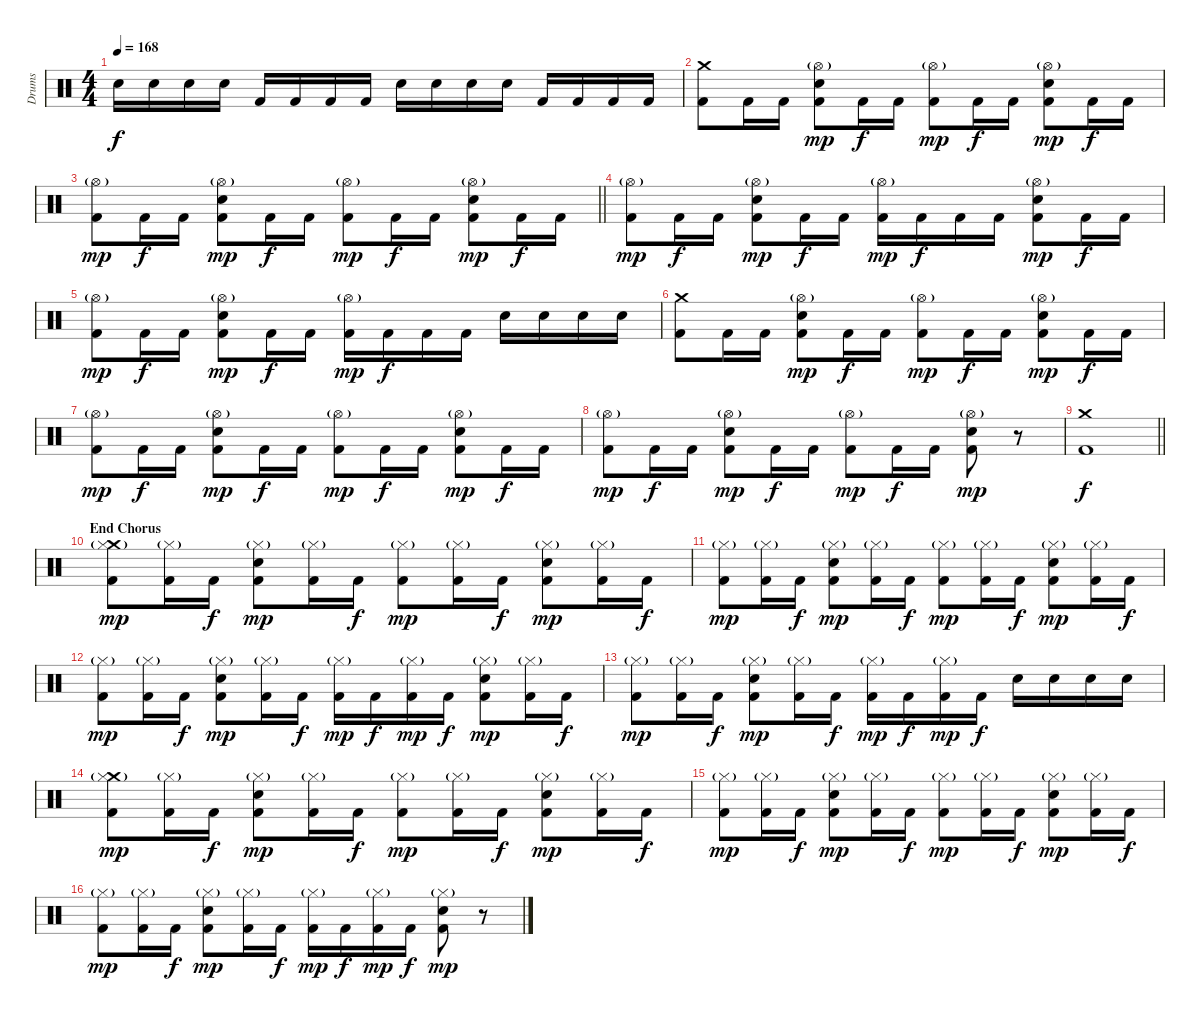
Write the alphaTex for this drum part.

\track ("Drums" "Drums") {instrument percussion}
\staff {score}
\articulation defaults
\ts (4 4)
\tempo 168
\clef neutral
\ks c "Snare (hit) 2".16{dy f} "Snare (hit) 2".16 "Snare (hit) 2".16 "Snare (hit) 2".16 "Kick (hit) 2".16 "Kick (hit) 2".16 "Kick (hit) 2".16 "Kick (hit) 2".16 "Snare (hit) 2".16 "Snare (hit) 2".16 "Snare (hit) 2".16 "Snare (hit) 2".16 "Kick (hit) 2".16 "Kick (hit) 2".16 "Kick (hit) 2".16 "Kick (hit) 2".16
|
("Crash medium (hit)" "Kick (hit) 2").8 "Kick (hit) 2".16 "Kick (hit) 2".16 ("Snare (hit) 2" "Hi-Hat (open)"{g} "Kick (hit) 2").8{dy mp} "Kick (hit) 2".16{dy f} "Kick (hit) 2".16 ("Hi-Hat (open)"{g} "Kick (hit) 2").8{dy mp} "Kick (hit) 2".16{dy f} "Kick (hit) 2".16 ("Snare (hit) 2" "Hi-Hat (open)"{g} "Kick (hit) 2").8{dy mp} "Kick (hit) 2".16{dy f} "Kick (hit) 2".16 |
\barLineRight lightlight
("Hi-Hat (open)"{g} "Kick (hit) 2").8{dy mp} "Kick (hit) 2".16{dy f} "Kick (hit) 2".16 ("Snare (hit) 2" "Hi-Hat (open)"{g} "Kick (hit) 2").8{dy mp} "Kick (hit) 2".16{dy f} "Kick (hit) 2".16 ("Hi-Hat (open)"{g} "Kick (hit) 2").8{dy mp} "Kick (hit) 2".16{dy f} "Kick (hit) 2".16 ("Snare (hit) 2" "Hi-Hat (open)"{g} "Kick (hit) 2").8{dy mp} "Kick (hit) 2".16{dy f} "Kick (hit) 2".16 |
("Hi-Hat (open)"{g} "Kick (hit) 2").8{dy mp} "Kick (hit) 2".16{dy f} "Kick (hit) 2".16 ("Snare (hit) 2" "Hi-Hat (open)"{g} "Kick (hit) 2").8{dy mp} "Kick (hit) 2".16{dy f} "Kick (hit) 2".16 ("Hi-Hat (open)"{g} "Kick (hit) 2").16{dy mp} "Kick (hit) 2".16{dy f} "Kick (hit) 2".16 "Kick (hit) 2".16 ("Snare (hit) 2" "Hi-Hat (open)"{g} "Kick (hit) 2").8{dy mp} "Kick (hit) 2".16{dy f} "Kick (hit) 2".16 |
("Hi-Hat (open)"{g} "Kick (hit) 2").8{dy mp} "Kick (hit) 2".16{dy f} "Kick (hit) 2".16 ("Snare (hit) 2" "Hi-Hat (open)"{g} "Kick (hit) 2").8{dy mp} "Kick (hit) 2".16{dy f} "Kick (hit) 2".16 ("Hi-Hat (open)"{g} "Kick (hit) 2").16{dy mp} "Kick (hit) 2".16{dy f} "Kick (hit) 2".16 "Kick (hit) 2".16 "Snare (hit) 2".16 "Snare (hit) 2".16 "Snare (hit) 2".16 "Snare (hit) 2".16 |
("Crash medium (hit)" "Kick (hit) 2").8 "Kick (hit) 2".16 "Kick (hit) 2".16 ("Snare (hit) 2" "Hi-Hat (open)"{g} "Kick (hit) 2").8{dy mp} "Kick (hit) 2".16{dy f} "Kick (hit) 2".16 ("Hi-Hat (open)"{g} "Kick (hit) 2").8{dy mp} "Kick (hit) 2".16{dy f} "Kick (hit) 2".16 ("Snare (hit) 2" "Hi-Hat (open)"{g} "Kick (hit) 2").8{dy mp} "Kick (hit) 2".16{dy f} "Kick (hit) 2".16 |
("Hi-Hat (open)"{g} "Kick (hit) 2").8{dy mp} "Kick (hit) 2".16{dy f} "Kick (hit) 2".16 ("Snare (hit) 2" "Hi-Hat (open)"{g} "Kick (hit) 2").8{dy mp} "Kick (hit) 2".16{dy f} "Kick (hit) 2".16 ("Hi-Hat (open)"{g} "Kick (hit) 2").8{dy mp} "Kick (hit) 2".16{dy f} "Kick (hit) 2".16 ("Snare (hit) 2" "Hi-Hat (open)"{g} "Kick (hit) 2").8{dy mp} "Kick (hit) 2".16{dy f} "Kick (hit) 2".16 |
("Hi-Hat (open)"{g} "Kick (hit) 2").8{dy mp} "Kick (hit) 2".16{dy f} "Kick (hit) 2".16 ("Snare (hit) 2" "Hi-Hat (open)"{g} "Kick (hit) 2").8{dy mp} "Kick (hit) 2".16{dy f} "Kick (hit) 2".16 ("Hi-Hat (open)"{g} "Kick (hit) 2").8{dy mp} "Kick (hit) 2".16{dy f} "Kick (hit) 2".16 ("Snare (hit) 2" "Hi-Hat (open)"{g} "Kick (hit) 2").8{dy mp} r.8 |
\barLineRight lightlight
("Crash medium (hit)" "Kick (hit) 2").1{dy f} |
\section ("" "End Chorus")
("Crash medium (hit)" "Hi-Hat (closed)"{g} "Kick (hit) 2").8{dy mp} ("Hi-Hat (closed)"{g} "Kick (hit) 2").16 "Kick (hit) 2".16{dy f} ("Snare (hit) 2" "Hi-Hat (closed)"{g} "Kick (hit) 2").8{dy mp} ("Hi-Hat (closed)"{g} "Kick (hit) 2").16 "Kick (hit) 2".16{dy f} ("Hi-Hat (closed)"{g} "Kick (hit) 2").8{dy mp} ("Hi-Hat (closed)"{g} "Kick (hit) 2").16 "Kick (hit) 2".16{dy f} ("Snare (hit) 2" "Hi-Hat (closed)"{g} "Kick (hit) 2").8{dy mp} ("Hi-Hat (closed)"{g} "Kick (hit) 2").16 "Kick (hit) 2".16{dy f} |
("Hi-Hat (closed)"{g} "Kick (hit) 2").8{dy mp} ("Hi-Hat (closed)"{g} "Kick (hit) 2").16 "Kick (hit) 2".16{dy f} ("Snare (hit) 2" "Hi-Hat (closed)"{g} "Kick (hit) 2").8{dy mp} ("Hi-Hat (closed)"{g} "Kick (hit) 2").16 "Kick (hit) 2".16{dy f} ("Hi-Hat (closed)"{g} "Kick (hit) 2").8{dy mp} ("Hi-Hat (closed)"{g} "Kick (hit) 2").16 "Kick (hit) 2".16{dy f} ("Snare (hit) 2" "Hi-Hat (closed)"{g} "Kick (hit) 2").8{dy mp} ("Hi-Hat (closed)"{g} "Kick (hit) 2").16 "Kick (hit) 2".16{dy f} |
("Hi-Hat (closed)"{g} "Kick (hit) 2").8{dy mp} ("Hi-Hat (closed)"{g} "Kick (hit) 2").16 "Kick (hit) 2".16{dy f} ("Snare (hit) 2" "Hi-Hat (closed)"{g} "Kick (hit) 2").8{dy mp} ("Hi-Hat (closed)"{g} "Kick (hit) 2").16 "Kick (hit) 2".16{dy f} ("Hi-Hat (closed)"{g} "Kick (hit) 2").16{dy mp} "Kick (hit) 2".16{dy f} ("Hi-Hat (closed)"{g} "Kick (hit) 2").16{dy mp} "Kick (hit) 2".16{dy f} ("Snare (hit) 2" "Hi-Hat (closed)"{g} "Kick (hit) 2").8{dy mp} ("Hi-Hat (closed)"{g} "Kick (hit) 2").16 "Kick (hit) 2".16{dy f} |
("Hi-Hat (closed)"{g} "Kick (hit) 2").8{dy mp} ("Hi-Hat (closed)"{g} "Kick (hit) 2").16 "Kick (hit) 2".16{dy f} ("Snare (hit) 2" "Hi-Hat (closed)"{g} "Kick (hit) 2").8{dy mp} ("Hi-Hat (closed)"{g} "Kick (hit) 2").16 "Kick (hit) 2".16{dy f} ("Hi-Hat (closed)"{g} "Kick (hit) 2").16{dy mp} "Kick (hit) 2".16{dy f} ("Hi-Hat (closed)"{g} "Kick (hit) 2").16{dy mp} "Kick (hit) 2".16{dy f} "Snare (hit) 2".16 "Snare (hit) 2".16 "Snare (hit) 2".16 "Snare (hit) 2".16 |
("Crash medium (hit)" "Hi-Hat (closed)"{g} "Kick (hit) 2").8{dy mp} ("Hi-Hat (closed)"{g} "Kick (hit) 2").16 "Kick (hit) 2".16{dy f} ("Snare (hit) 2" "Hi-Hat (closed)"{g} "Kick (hit) 2").8{dy mp} ("Hi-Hat (closed)"{g} "Kick (hit) 2").16 "Kick (hit) 2".16{dy f} ("Hi-Hat (closed)"{g} "Kick (hit) 2").8{dy mp} ("Hi-Hat (closed)"{g} "Kick (hit) 2").16 "Kick (hit) 2".16{dy f} ("Snare (hit) 2" "Hi-Hat (closed)"{g} "Kick (hit) 2").8{dy mp} ("Hi-Hat (closed)"{g} "Kick (hit) 2").16 "Kick (hit) 2".16{dy f} |
("Hi-Hat (closed)"{g} "Kick (hit) 2").8{dy mp} ("Hi-Hat (closed)"{g} "Kick (hit) 2").16 "Kick (hit) 2".16{dy f} ("Snare (hit) 2" "Hi-Hat (closed)"{g} "Kick (hit) 2").8{dy mp} ("Hi-Hat (closed)"{g} "Kick (hit) 2").16 "Kick (hit) 2".16{dy f} ("Hi-Hat (closed)"{g} "Kick (hit) 2").8{dy mp} ("Hi-Hat (closed)"{g} "Kick (hit) 2").16 "Kick (hit) 2".16{dy f} ("Snare (hit) 2" "Hi-Hat (closed)"{g} "Kick (hit) 2").8{dy mp} ("Hi-Hat (closed)"{g} "Kick (hit) 2").16 "Kick (hit) 2".16{dy f} |
("Hi-Hat (closed)"{g} "Kick (hit) 2").8{dy mp} ("Hi-Hat (closed)"{g} "Kick (hit) 2").16 "Kick (hit) 2".16{dy f} ("Snare (hit) 2" "Hi-Hat (closed)"{g} "Kick (hit) 2").8{dy mp} ("Hi-Hat (closed)"{g} "Kick (hit) 2").16 "Kick (hit) 2".16{dy f} ("Hi-Hat (closed)"{g} "Kick (hit) 2").16{dy mp} "Kick (hit) 2".16{dy f} ("Hi-Hat (closed)"{g} "Kick (hit) 2").16{dy mp} "Kick (hit) 2".16{dy f} ("Snare (hit) 2" "Hi-Hat (closed)"{g} "Kick (hit) 2").8{dy mp} r.8
